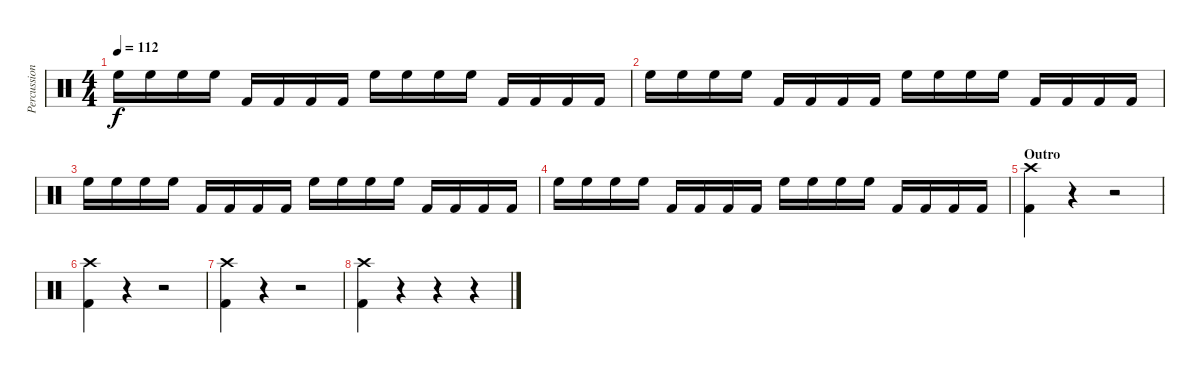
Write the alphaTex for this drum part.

\track ("Percussion" "Percussion") {instrument percussion}
\staff {score}
\articulation defaults
\ts (4 4)
\tempo 112
\clef neutral
\ks c "High Floor Tom (hit)".16{dy f} "High Floor Tom (hit)".16 "High Floor Tom (hit)".16 "High Floor Tom (hit)".16 "Kick (hit) 2".16 "Kick (hit) 2".16 "Kick (hit) 2".16 "Kick (hit) 2".16 "High Floor Tom (hit)".16 "High Floor Tom (hit)".16 "High Floor Tom (hit)".16 "High Floor Tom (hit)".16 "Kick (hit) 2".16 "Kick (hit) 2".16 "Kick (hit) 2".16 "Kick (hit) 2".16
|
"High Floor Tom (hit)".16 "High Floor Tom (hit)".16 "High Floor Tom (hit)".16 "High Floor Tom (hit)".16 "Kick (hit) 2".16 "Kick (hit) 2".16 "Kick (hit) 2".16 "Kick (hit) 2".16 "High Floor Tom (hit)".16 "High Floor Tom (hit)".16 "High Floor Tom (hit)".16 "High Floor Tom (hit)".16 "Kick (hit) 2".16 "Kick (hit) 2".16 "Kick (hit) 2".16 "Kick (hit) 2".16 |
"High Floor Tom (hit)".16 "High Floor Tom (hit)".16 "High Floor Tom (hit)".16 "High Floor Tom (hit)".16 "Kick (hit) 2".16 "Kick (hit) 2".16 "Kick (hit) 2".16 "Kick (hit) 2".16 "High Floor Tom (hit)".16 "High Floor Tom (hit)".16 "High Floor Tom (hit)".16 "High Floor Tom (hit)".16 "Kick (hit) 2".16 "Kick (hit) 2".16 "Kick (hit) 2".16 "Kick (hit) 2".16 |
"High Floor Tom (hit)".16 "High Floor Tom (hit)".16 "High Floor Tom (hit)".16 "High Floor Tom (hit)".16 "Kick (hit) 2".16 "Kick (hit) 2".16 "Kick (hit) 2".16 "Kick (hit) 2".16 "High Floor Tom (hit)".16 "High Floor Tom (hit)".16 "High Floor Tom (hit)".16 "High Floor Tom (hit)".16 "Kick (hit) 2".16 "Kick (hit) 2".16 "Kick (hit) 2".16 "Kick (hit) 2".16 |
\section ("" "Outro")
("Crash high (hit)" "Kick (hit) 2").4 r.4 r.2 |
("Crash high (hit)" "Kick (hit) 2").4 r.4 r.2 |
("Crash high (hit)" "Kick (hit) 2").4 r.4 r.2 |
("Crash high (hit)" "Kick (hit) 2").4 r.4 r.4 r.4
